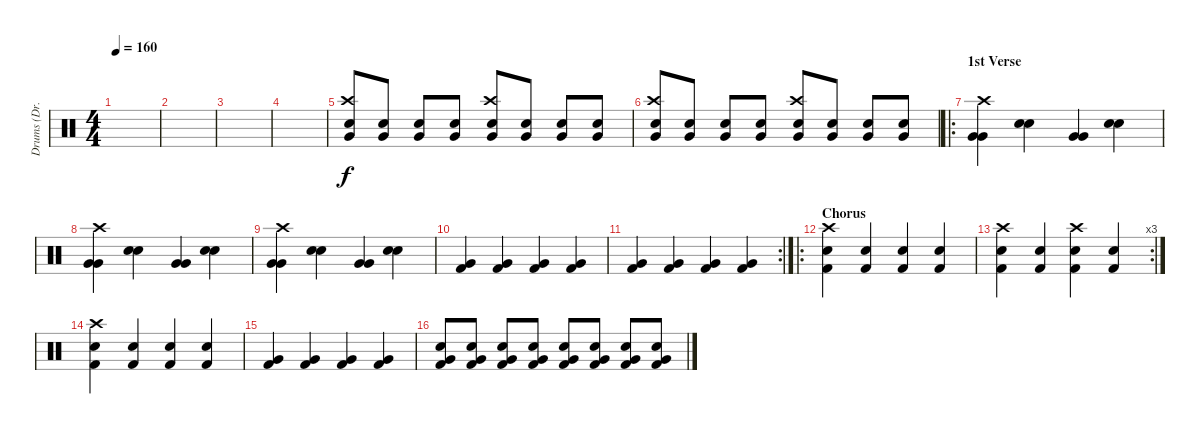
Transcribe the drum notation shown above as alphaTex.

\track ("Drums (Dr. Chud)" "Drums (Dr.") {instrument percussion}
\staff {score}
\articulation defaults
\ts (4 4)
\tempo 160
\clef neutral
\ks c
|
|
|
|
("Very Low Tom (hit)" "Crash high (hit)" "Electric Snare (hit)").8 ("Very Low Tom (hit)" "Electric Snare (hit)").8 ("Very Low Tom (hit)" "Electric Snare (hit)").8 ("Very Low Tom (hit)" "Electric Snare (hit)").8 ("Very Low Tom (hit)" "Crash high (hit)" "Electric Snare (hit)").8 ("Very Low Tom (hit)" "Electric Snare (hit)").8 ("Very Low Tom (hit)" "Electric Snare (hit)").8 ("Very Low Tom (hit)" "Electric Snare (hit)").8 |
("Very Low Tom (hit)" "Crash high (hit)" "Electric Snare (hit)").8 ("Very Low Tom (hit)" "Electric Snare (hit)").8 ("Very Low Tom (hit)" "Electric Snare (hit)").8 ("Very Low Tom (hit)" "Electric Snare (hit)").8 ("Very Low Tom (hit)" "Crash high (hit)" "Electric Snare (hit)").8 ("Very Low Tom (hit)" "Electric Snare (hit)").8 ("Very Low Tom (hit)" "Electric Snare (hit)").8 ("Very Low Tom (hit)" "Electric Snare (hit)").8 |
\ro
\section ("" "1st Verse")
("Very Low Tom (hit)" "Very Low Tom (hit)" "Crash high (hit)").4 ("Electric Snare (hit)" "Electric Snare (hit)").4 ("Very Low Tom (hit)" "Very Low Tom (hit)").4 ("Electric Snare (hit)" "Electric Snare (hit)").4 |
("Very Low Tom (hit)" "Very Low Tom (hit)" "Crash high (hit)").4 ("Electric Snare (hit)" "Electric Snare (hit)").4 ("Very Low Tom (hit)" "Very Low Tom (hit)").4 ("Electric Snare (hit)" "Electric Snare (hit)").4 |
("Very Low Tom (hit)" "Very Low Tom (hit)" "Crash high (hit)").4 ("Electric Snare (hit)" "Electric Snare (hit)").4 ("Very Low Tom (hit)" "Very Low Tom (hit)").4 ("Electric Snare (hit)" "Electric Snare (hit)").4 |
("Very Low Tom (hit)" "Kick (hit) 2").4 ("Very Low Tom (hit)" "Kick (hit) 2").4 ("Very Low Tom (hit)" "Kick (hit) 2").4 ("Very Low Tom (hit)" "Kick (hit) 2").4 |
\rc 2
("Very Low Tom (hit)" "Kick (hit) 2").4 ("Very Low Tom (hit)" "Kick (hit) 2").4 ("Very Low Tom (hit)" "Kick (hit) 2").4 ("Very Low Tom (hit)" "Kick (hit) 2").4 |
\ro
\section ("" "Chorus")
("Electric Snare (hit)" "Kick (hit) 2" "Crash high (hit)").4 ("Electric Snare (hit)" "Kick (hit) 2").4 ("Electric Snare (hit)" "Kick (hit) 2").4 ("Electric Snare (hit)" "Kick (hit) 2").4 |
\rc 3
("Electric Snare (hit)" "Kick (hit) 2" "Crash high (hit)").4 ("Electric Snare (hit)" "Kick (hit) 2").4 ("Electric Snare (hit)" "Kick (hit) 2" "Crash high (hit)").4 ("Electric Snare (hit)" "Kick (hit) 2").4 |
("Electric Snare (hit)" "Kick (hit) 2" "Crash high (hit)").4 ("Electric Snare (hit)" "Kick (hit) 2").4 ("Electric Snare (hit)" "Kick (hit) 2").4 ("Electric Snare (hit)" "Kick (hit) 2").4 |
("Very Low Tom (hit)" "Kick (hit) 2").4 ("Very Low Tom (hit)" "Kick (hit) 2").4 ("Very Low Tom (hit)" "Kick (hit) 2").4 ("Very Low Tom (hit)" "Kick (hit) 2").4 |
("Very Low Tom (hit)" "Kick (hit) 2" "Electric Snare (hit)").8 ("Very Low Tom (hit)" "Kick (hit) 2" "Electric Snare (hit)").8 ("Very Low Tom (hit)" "Kick (hit) 2" "Electric Snare (hit)").8 ("Very Low Tom (hit)" "Kick (hit) 2" "Electric Snare (hit)").8 ("Very Low Tom (hit)" "Kick (hit) 2" "Electric Snare (hit)").8 ("Very Low Tom (hit)" "Kick (hit) 2" "Electric Snare (hit)").8 ("Very Low Tom (hit)" "Kick (hit) 2" "Electric Snare (hit)").8 ("Very Low Tom (hit)" "Kick (hit) 2" "Electric Snare (hit)").8
